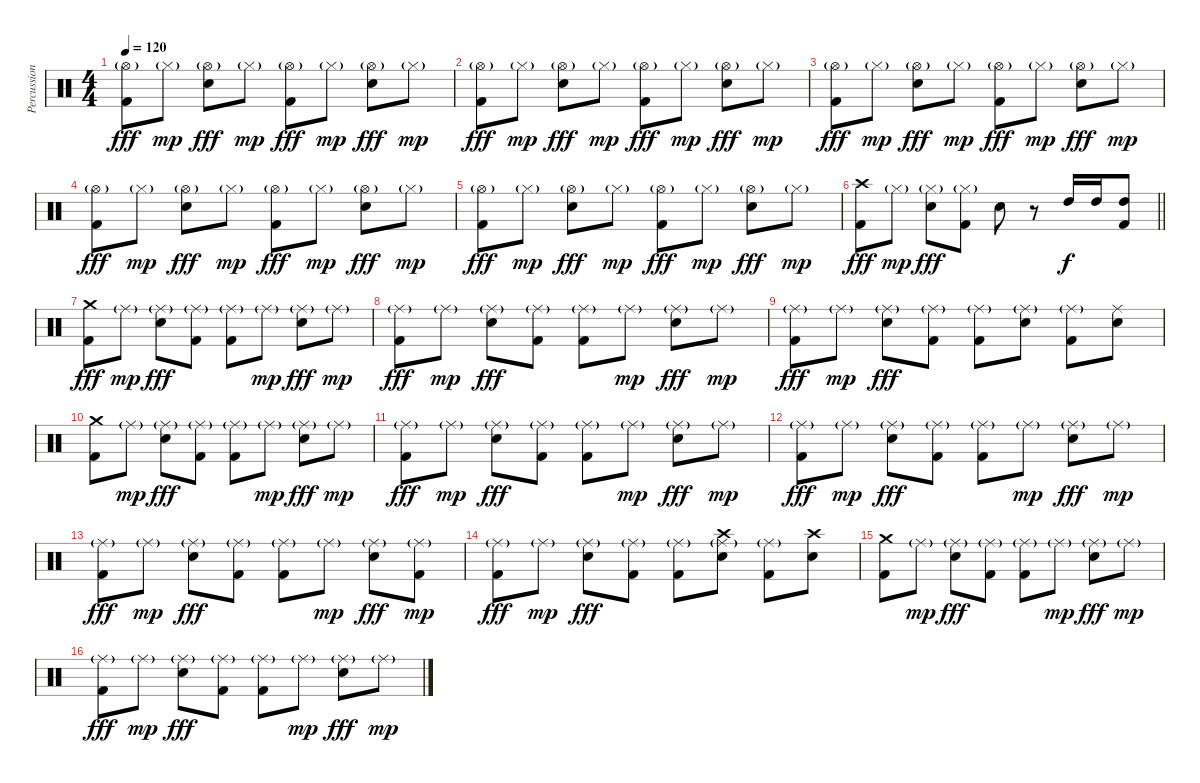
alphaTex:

\track ("Percussion" "Percussion") {instrument percussion}
\staff {score}
\articulation defaults
\ts (4 4)
\tempo 120
\clef neutral
\ks c
("Hi-Hat (open)"{g} "Kick (hit) 2").8{dy fff} "Hi-Hat (closed)"{g}.8{dy mp} ("Hi-Hat (open)"{g} "Electric Snare (hit)").8{dy fff} "Hi-Hat (closed)"{g}.8{dy mp} ("Hi-Hat (open)"{g} "Kick (hit) 2").8{dy fff} "Hi-Hat (closed)"{g}.8{dy mp} ("Hi-Hat (open)"{g} "Electric Snare (hit)").8{dy fff} "Hi-Hat (closed)"{g}.8{dy mp} |
("Hi-Hat (open)"{g} "Kick (hit) 2").8{dy fff} "Hi-Hat (closed)"{g}.8{dy mp} ("Hi-Hat (open)"{g} "Electric Snare (hit)").8{dy fff} "Hi-Hat (closed)"{g}.8{dy mp} ("Hi-Hat (open)"{g} "Kick (hit) 2").8{dy fff} "Hi-Hat (closed)"{g}.8{dy mp} ("Hi-Hat (open)"{g} "Electric Snare (hit)").8{dy fff} "Hi-Hat (closed)"{g}.8{dy mp} |
("Hi-Hat (open)"{g} "Kick (hit) 2").8{dy fff} "Hi-Hat (closed)"{g}.8{dy mp} ("Hi-Hat (open)"{g} "Electric Snare (hit)").8{dy fff} "Hi-Hat (closed)"{g}.8{dy mp} ("Hi-Hat (open)"{g} "Kick (hit) 2").8{dy fff} "Hi-Hat (closed)"{g}.8{dy mp} ("Hi-Hat (open)"{g} "Electric Snare (hit)").8{dy fff} "Hi-Hat (closed)"{g}.8{dy mp} |
("Hi-Hat (open)"{g} "Kick (hit) 2").8{dy fff} "Hi-Hat (closed)"{g}.8{dy mp} ("Hi-Hat (open)"{g} "Electric Snare (hit)").8{dy fff} "Hi-Hat (closed)"{g}.8{dy mp} ("Hi-Hat (open)"{g} "Kick (hit) 2").8{dy fff} "Hi-Hat (closed)"{g}.8{dy mp} ("Hi-Hat (open)"{g} "Electric Snare (hit)").8{dy fff} "Hi-Hat (closed)"{g}.8{dy mp} |
("Hi-Hat (open)"{g} "Kick (hit) 2").8{dy fff} "Hi-Hat (closed)"{g}.8{dy mp} ("Hi-Hat (open)"{g} "Electric Snare (hit)").8{dy fff} "Hi-Hat (closed)"{g}.8{dy mp} ("Hi-Hat (open)"{g} "Kick (hit) 2").8{dy fff} "Hi-Hat (closed)"{g}.8{dy mp} ("Hi-Hat (open)"{g} "Electric Snare (hit)").8{dy fff} "Hi-Hat (closed)"{g}.8{dy mp} |
\barLineRight lightlight
("Crash high (hit)" "Kick (hit) 2").8{dy fff} "Hi-Hat (closed)"{g}.8{dy mp} ("Hi-Hat (closed)"{g} "Electric Snare (hit)").8{dy fff} ("Hi-Hat (closed)"{g} "Kick (hit) 2").8 "Electric Snare (hit)".8 r.8 "High Tom (hit)".16{dy f} "High Tom (hit)".16 ("Kick (hit) 2" "High Tom (hit)").8 |
("Crash medium (hit)" "Kick (hit) 2").8{dy fff} "Ride (middle)"{g}.8{dy mp} ("Ride (middle)"{g} "Electric Snare (hit)").8{dy fff} ("Ride (middle)"{g} "Kick (hit) 2").8 ("Ride (middle)"{g} "Kick (hit) 2").8 "Ride (middle)"{g}.8{dy mp} ("Ride (middle)"{g} "Electric Snare (hit)").8{dy fff} "Ride (middle)"{g}.8{dy mp} |
("Ride (middle)"{g} "Kick (hit) 2").8{dy fff} "Ride (middle)"{g}.8{dy mp} ("Ride (middle)"{g} "Electric Snare (hit)").8{dy fff} ("Ride (middle)"{g} "Kick (hit) 2").8 ("Ride (middle)"{g} "Kick (hit) 2").8 "Ride (middle)"{g}.8{dy mp} ("Ride (middle)"{g} "Electric Snare (hit)").8{dy fff} "Ride (middle)"{g}.8{dy mp} |
("Ride (middle)"{g} "Kick (hit) 2").8{dy fff} "Ride (middle)"{g}.8{dy mp} ("Ride (middle)"{g} "Electric Snare (hit)").8{dy fff} ("Ride (middle)"{g} "Kick (hit) 2").8 ("Ride (middle)"{g} "Kick (hit) 2").8 ("Ride (middle)"{g} "Electric Snare (hit)").8 ("Ride (middle)"{g} "Kick (hit) 2").8 ("Ride (middle)" "Electric Snare (hit)").8 |
("Crash medium (hit)" "Kick (hit) 2").8 "Ride (middle)"{g}.8{dy mp} ("Ride (middle)"{g} "Electric Snare (hit)").8{dy fff} ("Ride (middle)"{g} "Kick (hit) 2").8 ("Ride (middle)"{g} "Kick (hit) 2").8 "Ride (middle)"{g}.8{dy mp} ("Ride (middle)"{g} "Electric Snare (hit)").8{dy fff} "Ride (middle)"{g}.8{dy mp} |
("Ride (middle)"{g} "Kick (hit) 2").8{dy fff} "Ride (middle)"{g}.8{dy mp} ("Ride (middle)"{g} "Electric Snare (hit)").8{dy fff} ("Ride (middle)"{g} "Kick (hit) 2").8 ("Ride (middle)"{g} "Kick (hit) 2").8 "Ride (middle)"{g}.8{dy mp} ("Ride (middle)"{g} "Electric Snare (hit)").8{dy fff} "Ride (middle)"{g}.8{dy mp} |
("Ride (middle)"{g} "Kick (hit) 2").8{dy fff} "Ride (middle)"{g}.8{dy mp} ("Ride (middle)"{g} "Electric Snare (hit)").8{dy fff} ("Ride (middle)"{g} "Kick (hit) 2").8 ("Ride (middle)"{g} "Kick (hit) 2").8 "Ride (middle)"{g}.8{dy mp} ("Ride (middle)"{g} "Electric Snare (hit)").8{dy fff} "Ride (middle)"{g}.8{dy mp} |
("Ride (middle)"{g} "Kick (hit) 2").8{dy fff} "Ride (middle)"{g}.8{dy mp} ("Ride (middle)"{g} "Electric Snare (hit)").8{dy fff} ("Ride (middle)"{g} "Kick (hit) 2").8 ("Ride (middle)"{g} "Kick (hit) 2").8 "Ride (middle)"{g}.8{dy mp} ("Ride (middle)"{g} "Electric Snare (hit)").8{dy fff} ("Ride (middle)"{g} "Kick (hit) 2").8{dy mp} |
("Ride (middle)"{g} "Kick (hit) 2").8{dy fff} "Ride (middle)"{g}.8{dy mp} ("Ride (middle)"{g} "Electric Snare (hit)").8{dy fff} ("Ride (middle)"{g} "Kick (hit) 2").8 ("Ride (middle)"{g} "Kick (hit) 2").8 ("Crash high (hit)" "Ride (middle)"{g} "Electric Snare (hit)").8 ("Ride (middle)"{g} "Kick (hit) 2").8 ("Crash high (hit)" "Electric Snare (hit)").8 |
("Crash medium (hit)" "Kick (hit) 2").8 "Ride (middle)"{g}.8{dy mp} ("Ride (middle)"{g} "Electric Snare (hit)").8{dy fff} ("Ride (middle)"{g} "Kick (hit) 2").8 ("Ride (middle)"{g} "Kick (hit) 2").8 "Ride (middle)"{g}.8{dy mp} ("Ride (middle)"{g} "Electric Snare (hit)").8{dy fff} "Ride (middle)"{g}.8{dy mp} |
("Ride (middle)"{g} "Kick (hit) 2").8{dy fff} "Ride (middle)"{g}.8{dy mp} ("Ride (middle)"{g} "Electric Snare (hit)").8{dy fff} ("Ride (middle)"{g} "Kick (hit) 2").8 ("Ride (middle)"{g} "Kick (hit) 2").8 "Ride (middle)"{g}.8{dy mp} ("Ride (middle)"{g} "Electric Snare (hit)").8{dy fff} "Ride (middle)"{g}.8{dy mp}
